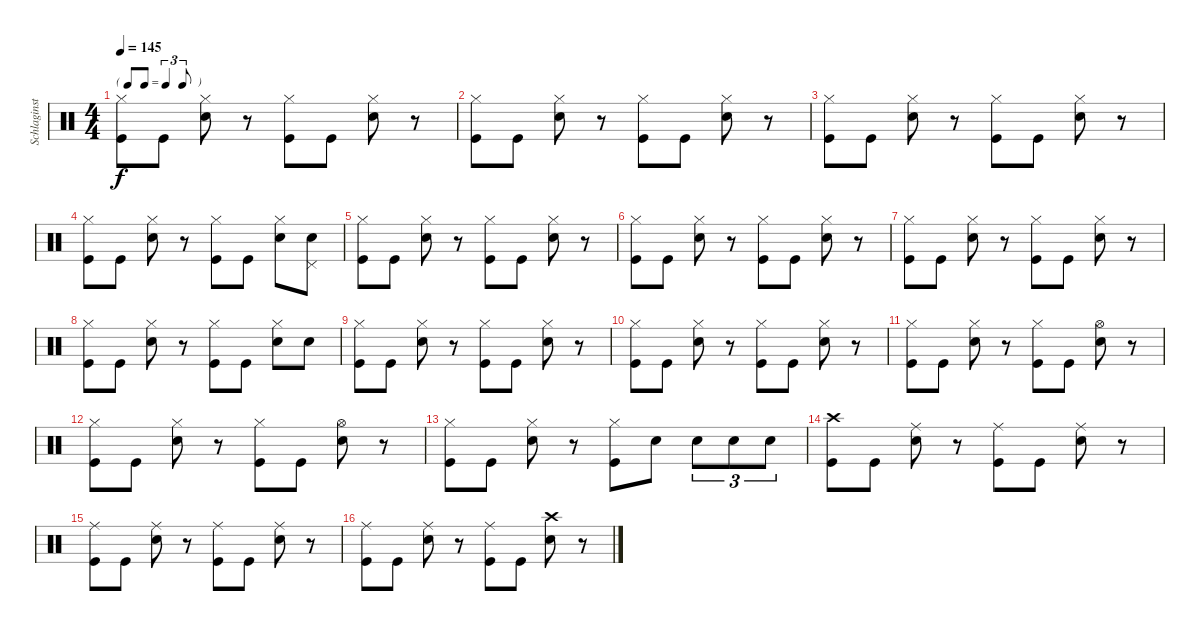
\track ("Schlaginstrumente - Auswahl" "Schlaginst") {instrument percussion}
\staff {score}
\articulation defaults
\ts (4 4)
\tf triplet8th
\tempo 145
\clef neutral
\ks c
("Hi-Hat (closed)" "Kick (hit)").8{dy f} "Kick (hit)".8 ("Hi-Hat (closed)" "Snare (hit) 2").8 r.8 ("Hi-Hat (closed)" "Kick (hit)").8 "Kick (hit)".8 ("Hi-Hat (closed)" "Snare (hit) 2").8 r.8 |
("Hi-Hat (closed)" "Kick (hit)").8 "Kick (hit)".8 ("Hi-Hat (closed)" "Snare (hit) 2").8 r.8 ("Hi-Hat (closed)" "Kick (hit)").8 "Kick (hit)".8 ("Hi-Hat (closed)" "Snare (hit) 2").8 r.8 |
("Hi-Hat (closed)" "Kick (hit)").8 "Kick (hit)".8 ("Hi-Hat (closed)" "Snare (hit) 2").8 r.8 ("Hi-Hat (closed)" "Kick (hit)").8 "Kick (hit)".8 ("Hi-Hat (closed)" "Snare (hit) 2").8 r.8 |
("Hi-Hat (closed)" "Kick (hit)").8 "Kick (hit)".8 ("Hi-Hat (closed)" "Snare (hit) 2").8 r.8 ("Hi-Hat (closed)" "Kick (hit)").8 "Kick (hit)".8 ("Hi-Hat (closed)" "Snare (hit) 2").8 ("Pedal Hi-Hat (hit)" "Snare (hit) 2").8 |
("Hi-Hat (closed)" "Kick (hit)").8 "Kick (hit)".8 ("Hi-Hat (closed)" "Snare (hit) 2").8 r.8 ("Hi-Hat (closed)" "Kick (hit)").8 "Kick (hit)".8 ("Hi-Hat (closed)" "Snare (hit) 2").8 r.8 |
("Hi-Hat (closed)" "Kick (hit)").8 "Kick (hit)".8 ("Hi-Hat (closed)" "Snare (hit) 2").8 r.8 ("Hi-Hat (closed)" "Kick (hit)").8 "Kick (hit)".8 ("Hi-Hat (closed)" "Snare (hit) 2").8 r.8 |
("Hi-Hat (closed)" "Kick (hit)").8 "Kick (hit)".8 ("Hi-Hat (closed)" "Snare (hit) 2").8 r.8 ("Hi-Hat (closed)" "Kick (hit)").8 "Kick (hit)".8 ("Hi-Hat (closed)" "Snare (hit) 2").8 r.8 |
("Hi-Hat (closed)" "Kick (hit)").8 "Kick (hit)".8 ("Hi-Hat (closed)" "Snare (hit) 2").8 r.8 ("Hi-Hat (closed)" "Kick (hit)").8 "Kick (hit)".8 ("Hi-Hat (closed)" "Snare (hit) 2").8 "Snare (hit) 2".8 |
("Hi-Hat (closed)" "Kick (hit)").8 "Kick (hit)".8 ("Hi-Hat (closed)" "Snare (hit) 2").8 r.8 ("Hi-Hat (closed)" "Kick (hit)").8 "Kick (hit)".8 ("Hi-Hat (closed)" "Snare (hit) 2").8 r.8 |
("Hi-Hat (closed)" "Kick (hit)").8 "Kick (hit)".8 ("Hi-Hat (closed)" "Snare (hit) 2").8 r.8 ("Hi-Hat (closed)" "Kick (hit)").8 "Kick (hit)".8 ("Hi-Hat (closed)" "Snare (hit) 2").8 r.8 |
("Hi-Hat (closed)" "Kick (hit)").8 "Kick (hit)".8 ("Hi-Hat (closed)" "Snare (hit) 2").8 r.8 ("Hi-Hat (closed)" "Kick (hit)").8 "Kick (hit)".8 ("Hi-Hat (open)" "Snare (hit) 2").8 r.8 |
("Hi-Hat (closed)" "Kick (hit)").8 "Kick (hit)".8 ("Hi-Hat (closed)" "Snare (hit) 2").8 r.8 ("Hi-Hat (closed)" "Kick (hit)").8 "Kick (hit)".8 ("Hi-Hat (open)" "Snare (hit) 2").8 r.8 |
("Hi-Hat (closed)" "Kick (hit)").8 "Kick (hit)".8 ("Hi-Hat (closed)" "Snare (hit) 2").8 r.8 ("Hi-Hat (closed)" "Kick (hit)").8 "Snare (hit) 2".8 "Snare (hit) 2".8{tu (3 2)} "Snare (hit) 2".8{tu (3 2)} "Snare (hit) 2".8{tu (3 2)} |
("Crash high (hit)" "Kick (hit)").8 "Kick (hit)".8 ("Ride (middle)" "Snare (hit) 2").8 r.8 ("Ride (middle)" "Kick (hit)").8 "Kick (hit)".8 ("Ride (middle)" "Snare (hit) 2").8 r.8 |
("Ride (middle)" "Kick (hit)").8 "Kick (hit)".8 ("Ride (middle)" "Snare (hit) 2").8 r.8 ("Ride (middle)" "Kick (hit)").8 "Kick (hit)".8 ("Ride (middle)" "Snare (hit) 2").8 r.8 |
("Ride (middle)" "Kick (hit)").8 "Kick (hit)".8 ("Ride (middle)" "Snare (hit) 2").8 r.8 ("Ride (middle)" "Kick (hit)").8 "Kick (hit)".8 ("Crash high (hit)" "Snare (hit) 2").8 r.8
